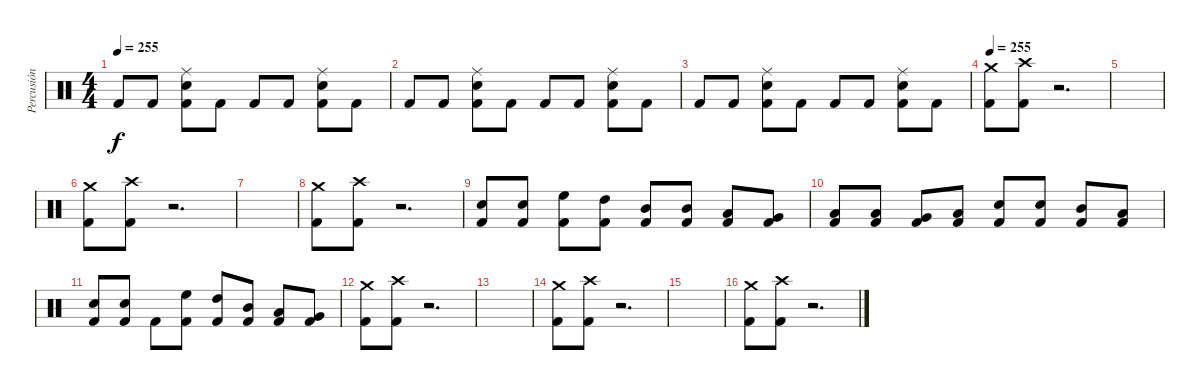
\track ("Percusión" "Percusión") {instrument percussion}
\staff {score}
\articulation defaults
\ts (4 4)
\tempo 255
\clef neutral
\ks c "Kick (hit) 2".8{dy f} "Kick (hit) 2".8
("Kick (hit) 2" "Electric Snare (hit)" "Ride (middle)").8 "Kick (hit) 2".8 "Kick (hit) 2".8 "Kick (hit) 2".8 ("Kick (hit) 2" "Electric Snare (hit)" "Ride (middle)").8 "Kick (hit) 2".8 |
"Kick (hit) 2".8 "Kick (hit) 2".8 ("Kick (hit) 2" "Electric Snare (hit)" "Ride (middle)").8 "Kick (hit) 2".8 "Kick (hit) 2".8 "Kick (hit) 2".8 ("Kick (hit) 2" "Electric Snare (hit)" "Ride (middle)").8 "Kick (hit) 2".8 |
"Kick (hit) 2".8 "Kick (hit) 2".8 ("Kick (hit) 2" "Electric Snare (hit)" "Ride (middle)").8 "Kick (hit) 2".8 "Kick (hit) 2".8 "Kick (hit) 2".8 ("Kick (hit) 2" "Electric Snare (hit)" "Ride (middle)").8 "Kick (hit) 2".8 |
\tempo 255
("Kick (hit) 2" "Crash medium (hit)").8 ("Kick (hit) 2" "Crash high (hit)").8 r.2{d} |
|
("Kick (hit) 2" "Crash medium (hit)").8 ("Kick (hit) 2" "Crash high (hit)").8 r.2{d} |
|
("Kick (hit) 2" "Crash medium (hit)").8 ("Kick (hit) 2" "Crash high (hit)").8 r.2{d} |
("Kick (hit) 2" "Electric Snare (hit)").8 ("Kick (hit) 2" "Electric Snare (hit)").8 ("Kick (hit) 2" "High Floor Tom (hit)").8 ("Kick (hit) 2" "High Tom (hit)").8 ("Kick (hit) 2" "Mid Tom (hit)").8 ("Kick (hit) 2" "Mid Tom (hit)").8 ("Kick (hit) 2" "Low Tom (hit)").8 ("Kick (hit) 2" "Very Low Tom (hit)").8 |
("Kick (hit) 2" "Low Tom (hit)").8 ("Kick (hit) 2" "Low Tom (hit)").8 ("Kick (hit) 2" "Very Low Tom (hit)").8 ("Kick (hit) 2" "Low Floor Tom (hit)").8 ("Kick (hit) 2" "Electric Snare (hit)").8 ("Kick (hit) 2" "Electric Snare (hit)").8 ("Kick (hit) 2" "Mid Tom (hit)").8 ("Kick (hit) 2" "Low Tom (hit)").8 |
("Kick (hit) 2" "Electric Snare (hit)").8 ("Kick (hit) 2" "Electric Snare (hit)").8 "Kick (hit) 2".8 ("Kick (hit) 2" "High Floor Tom (hit)").8 ("Kick (hit) 2" "High Tom (hit)").8 ("Kick (hit) 2" "Mid Tom (hit)").8 ("Kick (hit) 2" "Low Tom (hit)").8 ("Kick (hit) 2" "Very Low Tom (hit)").8 |
("Kick (hit) 2" "Crash medium (hit)").8 ("Kick (hit) 2" "Crash high (hit)").8 r.2{d} |
|
("Kick (hit) 2" "Crash medium (hit)").8 ("Kick (hit) 2" "Crash high (hit)").8 r.2{d} |
|
("Kick (hit) 2" "Crash medium (hit)").8 ("Kick (hit) 2" "Crash high (hit)").8 r.2{d}
